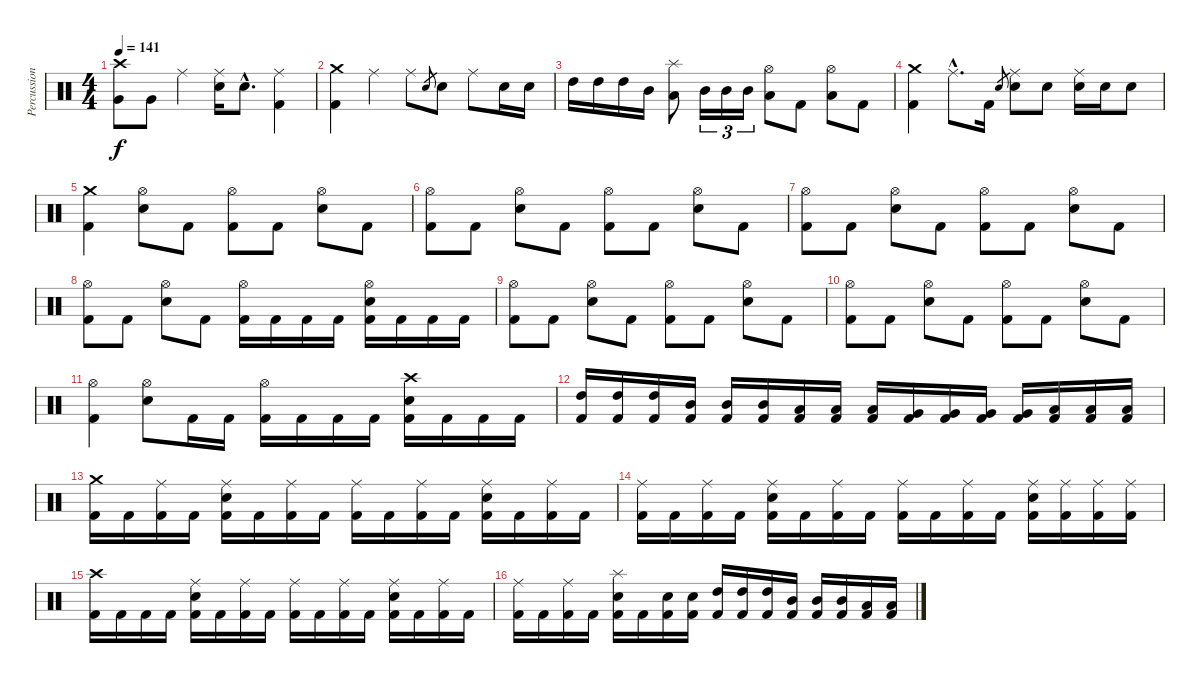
\track ("Percussion" "Percussion") {instrument percussion}
\staff {score}
\articulation defaults
\ts (4 4)
\tempo 141
\clef neutral
\ks c
("Very Low Tom (hit)" "Crash high (hit)").8{dy f} "Very Low Tom (hit)".8 "Ride (middle)".4 ("Electric Snare (hit)" "Ride (middle)").16 "Electric Snare (hit)"{hac}.8{d} ("Kick (hit) 2" "Ride (middle)").4 |
("Kick (hit) 2" "Crash medium (hit)").4 "Ride (middle)".4 "Ride (middle)".8 "Electric Snare (hit)".8{gr} "Electric Snare (hit)".8 "Ride (middle)".8 "Electric Snare (hit)".16 "Electric Snare (hit)".16 |
"High Tom (hit)".16 "High Tom (hit)".16 "High Tom (hit)".16 "Mid Tom (hit)".16 ("Low Tom (hit)" "Splash (hit)").8 "Mid Tom (hit)".16{tu (3 2)} "Mid Tom (hit)".16{tu (3 2)} "Mid Tom (hit)".16{tu (3 2)} ("Low Tom (hit)" "Hi-Hat (open)").8 "Kick (hit) 2".8 ("Low Tom (hit)" "Hi-Hat (open)").8 "Kick (hit) 2".8 |
("Kick (hit) 2" "Crash medium (hit)").4 "Ride (middle)"{hac}.8{d} "Kick (hit) 2".16 "Electric Snare (hit)".8{gr} ("Electric Snare (hit)" "Ride (middle)").8 "Electric Snare (hit)".8 ("Electric Snare (hit)" "Ride (middle)").16 "Electric Snare (hit)".16 "Electric Snare (hit)".8 |
("Kick (hit) 2" "Crash medium (hit)").4 ("Electric Snare (hit)" "Hi-Hat (open)").8 "Kick (hit) 2".8 ("Kick (hit) 2" "Hi-Hat (open)").8 "Kick (hit) 2".8 ("Electric Snare (hit)" "Hi-Hat (open)").8 "Kick (hit) 2".8 |
("Kick (hit) 2" "Hi-Hat (open)").8 "Kick (hit) 2".8 ("Electric Snare (hit)" "Hi-Hat (open)").8 "Kick (hit) 2".8 ("Kick (hit) 2" "Hi-Hat (open)").8 "Kick (hit) 2".8 ("Electric Snare (hit)" "Hi-Hat (open)").8 "Kick (hit) 2".8 |
("Kick (hit) 2" "Hi-Hat (open)").8 "Kick (hit) 2".8 ("Electric Snare (hit)" "Hi-Hat (open)").8 "Kick (hit) 2".8 ("Kick (hit) 2" "Hi-Hat (open)").8 "Kick (hit) 2".8 ("Electric Snare (hit)" "Hi-Hat (open)").8 "Kick (hit) 2".8 |
("Kick (hit) 2" "Hi-Hat (open)").8 "Kick (hit) 2".8 ("Electric Snare (hit)" "Hi-Hat (open)").8 "Kick (hit) 2".8 ("Kick (hit) 2" "Hi-Hat (open)").16 "Kick (hit) 2".16 "Kick (hit) 2".16 "Kick (hit) 2".16 ("Kick (hit) 2" "Electric Snare (hit)" "Hi-Hat (open)").16 "Kick (hit) 2".16 "Kick (hit) 2".16 "Kick (hit) 2".16 |
("Kick (hit) 2" "Hi-Hat (open)").8 "Kick (hit) 2".8 ("Electric Snare (hit)" "Hi-Hat (open)").8 "Kick (hit) 2".8 ("Kick (hit) 2" "Hi-Hat (open)").8 "Kick (hit) 2".8 ("Electric Snare (hit)" "Hi-Hat (open)").8 "Kick (hit) 2".8 |
("Kick (hit) 2" "Hi-Hat (open)").8 "Kick (hit) 2".8 ("Electric Snare (hit)" "Hi-Hat (open)").8 "Kick (hit) 2".8 ("Kick (hit) 2" "Hi-Hat (open)").8 "Kick (hit) 2".8 ("Electric Snare (hit)" "Hi-Hat (open)").8 "Kick (hit) 2".8 |
("Kick (hit) 2" "Hi-Hat (open)").4 ("Electric Snare (hit)" "Hi-Hat (open)").8 "Kick (hit) 2".16 "Kick (hit) 2".16 ("Kick (hit) 2" "Hi-Hat (open)").16 "Kick (hit) 2".16 "Kick (hit) 2".16 "Kick (hit) 2".16 ("Kick (hit) 2" "Electric Snare (hit)" "Crash high (hit)").16 "Kick (hit) 2".16 "Kick (hit) 2".16 "Kick (hit) 2".16 |
("Kick (hit) 2" "High Tom (hit)").16 ("Kick (hit) 2" "High Tom (hit)").16 ("Kick (hit) 2" "High Tom (hit)").16 ("Kick (hit) 2" "Mid Tom (hit)").16 ("Kick (hit) 2" "Mid Tom (hit)").16 ("Kick (hit) 2" "Mid Tom (hit)").16 ("Kick (hit) 2" "Low Tom (hit)").16 ("Kick (hit) 2" "Low Tom (hit)").16 ("Kick (hit) 2" "Low Tom (hit)").16 ("Kick (hit) 2" "Very Low Tom (hit)").16 ("Kick (hit) 2" "Very Low Tom (hit)").16 ("Kick (hit) 2" "Very Low Tom (hit)").16 ("Kick (hit) 2" "Very Low Tom (hit)").16 ("Kick (hit) 2" "Low Floor Tom (hit)").16 ("Kick (hit) 2" "Low Floor Tom (hit)").16 ("Kick (hit) 2" "Low Floor Tom (hit)").16 |
("Kick (hit) 2" "Crash medium (hit)").16 "Kick (hit) 2".16 ("Kick (hit) 2" "Ride (middle)").16 "Kick (hit) 2".16 ("Kick (hit) 2" "Electric Snare (hit)" "Ride (middle)").16 "Kick (hit) 2".16 ("Kick (hit) 2" "Ride (middle)").16 "Kick (hit) 2".16 ("Kick (hit) 2" "Ride (middle)").16 "Kick (hit) 2".16 ("Kick (hit) 2" "Ride (middle)").16 "Kick (hit) 2".16 ("Kick (hit) 2" "Electric Snare (hit)" "Ride (middle)").16 "Kick (hit) 2".16 ("Kick (hit) 2" "Ride (middle)").16 "Kick (hit) 2".16 |
("Kick (hit) 2" "Ride (middle)").16 "Kick (hit) 2".16 ("Kick (hit) 2" "Ride (middle)").16 "Kick (hit) 2".16 ("Kick (hit) 2" "Electric Snare (hit)" "Ride (middle)").16 "Kick (hit) 2".16 ("Kick (hit) 2" "Ride (middle)").16 "Kick (hit) 2".16 ("Kick (hit) 2" "Ride (middle)").16 "Kick (hit) 2".16 ("Kick (hit) 2" "Ride (middle)").16 "Kick (hit) 2".16 ("Kick (hit) 2" "Electric Snare (hit)" "Ride (middle)").16 ("Kick (hit) 2" "Ride (middle)").16 ("Kick (hit) 2" "Ride (middle)").16 ("Kick (hit) 2" "Ride (middle)").16 |
("Kick (hit) 2" "Crash high (hit)").16 "Kick (hit) 2".16 "Kick (hit) 2".16 "Kick (hit) 2".16 ("Kick (hit) 2" "Electric Snare (hit)" "Ride (middle)").16 "Kick (hit) 2".16 ("Kick (hit) 2" "Ride (middle)").16 "Kick (hit) 2".16 ("Kick (hit) 2" "Ride (middle)").16 "Kick (hit) 2".16 ("Kick (hit) 2" "Ride (middle)").16 "Kick (hit) 2".16 ("Kick (hit) 2" "Electric Snare (hit)" "Ride (middle)").16 "Kick (hit) 2".16 ("Kick (hit) 2" "Ride (middle)").16 "Kick (hit) 2".16 |
("Kick (hit) 2" "Ride (middle)").16 "Kick (hit) 2".16 ("Kick (hit) 2" "Ride (middle)").16 "Kick (hit) 2".16 ("Kick (hit) 2" "Electric Snare (hit)" "Splash (hit)").16 "Kick (hit) 2".16 ("Kick (hit) 2" "Electric Snare (hit)").16 ("Kick (hit) 2" "Electric Snare (hit)").16 ("Kick (hit) 2" "High Tom (hit)").16 ("Kick (hit) 2" "High Tom (hit)").16 ("Kick (hit) 2" "High Tom (hit)").16 ("Kick (hit) 2" "Mid Tom (hit)").16 ("Kick (hit) 2" "Mid Tom (hit)").16 ("Kick (hit) 2" "Mid Tom (hit)").16 ("Kick (hit) 2" "Low Tom (hit)").16 ("Kick (hit) 2" "Low Tom (hit)").16
